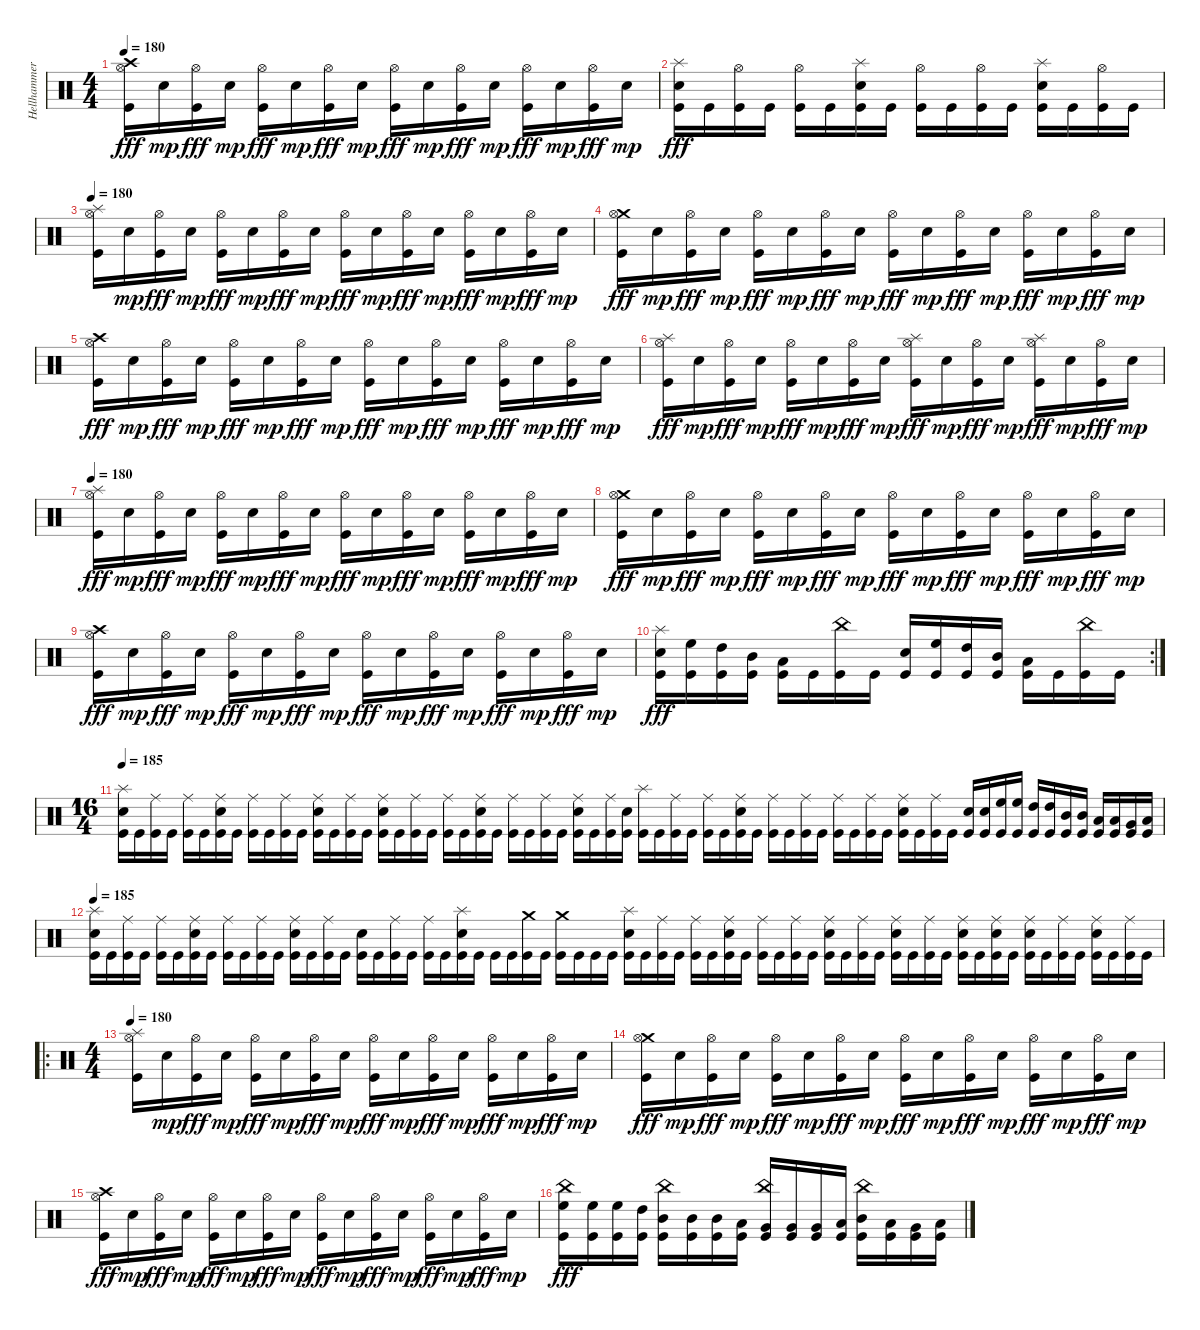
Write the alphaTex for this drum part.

\track ("Hellhammer" "Hellhammer") {instrument percussion}
\staff {score}
\articulation defaults
\ts (4 4)
\tempo 180
\clef neutral
\ks c
("Crash high (hit)" "Hi-Hat (open)" "Kick (hit)").16{dy fff} "Electric Snare (hit)".16{dy mp} ("Hi-Hat (open)" "Kick (hit)").16{dy fff} "Electric Snare (hit)".16{dy mp} ("Hi-Hat (open)" "Kick (hit)").16{dy fff} "Electric Snare (hit)".16{dy mp} ("Hi-Hat (open)" "Kick (hit)").16{dy fff} "Electric Snare (hit)".16{dy mp} ("Hi-Hat (open)" "Kick (hit)").16{dy fff} "Electric Snare (hit)".16{dy mp} ("Hi-Hat (open)" "Kick (hit)").16{dy fff} "Electric Snare (hit)".16{dy mp} ("Hi-Hat (open)" "Kick (hit)").16{dy fff} "Electric Snare (hit)".16{dy mp} ("Hi-Hat (open)" "Kick (hit)").16{dy fff} "Electric Snare (hit)".16{dy mp} |
("Splash (hit)" "Electric Snare (hit)" "Kick (hit)").16{dy fff} "Kick (hit)".16 ("Hi-Hat (open)" "Kick (hit)").16 "Kick (hit)".16 ("Hi-Hat (open)" "Kick (hit)").16 "Kick (hit)".16 ("Splash (hit)" "Electric Snare (hit)" "Kick (hit)").16 "Kick (hit)".16 ("Hi-Hat (open)" "Kick (hit)").16 "Kick (hit)".16 ("Hi-Hat (open)" "Kick (hit)").16 "Kick (hit)".16 ("Splash (hit)" "Electric Snare (hit)" "Kick (hit)").16 "Kick (hit)".16 ("Hi-Hat (open)" "Kick (hit)").16 "Kick (hit)".16 |
\tempo 180
("Splash (hit)" "Hi-Hat (open)" "Kick (hit)").16 "Electric Snare (hit)".16{dy mp} ("Hi-Hat (open)" "Kick (hit)").16{dy fff} "Electric Snare (hit)".16{dy mp} ("Hi-Hat (open)" "Kick (hit)").16{dy fff} "Electric Snare (hit)".16{dy mp} ("Hi-Hat (open)" "Kick (hit)").16{dy fff} "Electric Snare (hit)".16{dy mp} ("Hi-Hat (open)" "Kick (hit)").16{dy fff} "Electric Snare (hit)".16{dy mp} ("Hi-Hat (open)" "Kick (hit)").16{dy fff} "Electric Snare (hit)".16{dy mp} ("Hi-Hat (open)" "Kick (hit)").16{dy fff} "Electric Snare (hit)".16{dy mp} ("Hi-Hat (open)" "Kick (hit)").16{dy fff} "Electric Snare (hit)".16{dy mp} |
("Crash medium (hit)" "Hi-Hat (open)" "Kick (hit)").16{dy fff} "Electric Snare (hit)".16{dy mp} ("Hi-Hat (open)" "Kick (hit)").16{dy fff} "Electric Snare (hit)".16{dy mp} ("Hi-Hat (open)" "Kick (hit)").16{dy fff} "Electric Snare (hit)".16{dy mp} ("Hi-Hat (open)" "Kick (hit)").16{dy fff} "Electric Snare (hit)".16{dy mp} ("Hi-Hat (open)" "Kick (hit)").16{dy fff} "Electric Snare (hit)".16{dy mp} ("Hi-Hat (open)" "Kick (hit)").16{dy fff} "Electric Snare (hit)".16{dy mp} ("Hi-Hat (open)" "Kick (hit)").16{dy fff} "Electric Snare (hit)".16{dy mp} ("Hi-Hat (open)" "Kick (hit)").16{dy fff} "Electric Snare (hit)".16{dy mp} |
("Crash high (hit)" "Hi-Hat (open)" "Kick (hit)").16{dy fff} "Electric Snare (hit)".16{dy mp} ("Hi-Hat (open)" "Kick (hit)").16{dy fff} "Electric Snare (hit)".16{dy mp} ("Hi-Hat (open)" "Kick (hit)").16{dy fff} "Electric Snare (hit)".16{dy mp} ("Hi-Hat (open)" "Kick (hit)").16{dy fff} "Electric Snare (hit)".16{dy mp} ("Hi-Hat (open)" "Kick (hit)").16{dy fff} "Electric Snare (hit)".16{dy mp} ("Hi-Hat (open)" "Kick (hit)").16{dy fff} "Electric Snare (hit)".16{dy mp} ("Hi-Hat (open)" "Kick (hit)").16{dy fff} "Electric Snare (hit)".16{dy mp} ("Hi-Hat (open)" "Kick (hit)").16{dy fff} "Electric Snare (hit)".16{dy mp} |
("Splash (hit)" "Hi-Hat (open)" "Kick (hit)").16{dy fff} "Electric Snare (hit)".16{dy mp} ("Hi-Hat (open)" "Kick (hit)").16{dy fff} "Electric Snare (hit)".16{dy mp} ("Hi-Hat (open)" "Kick (hit)").16{dy fff} "Electric Snare (hit)".16{dy mp} ("Hi-Hat (open)" "Kick (hit)").16{dy fff} "Electric Snare (hit)".16{dy mp} ("Splash (hit)" "Hi-Hat (open)" "Kick (hit)").16{dy fff} "Electric Snare (hit)".16{dy mp} ("Hi-Hat (open)" "Kick (hit)").16{dy fff} "Electric Snare (hit)".16{dy mp} ("Splash (hit)" "Hi-Hat (open)" "Kick (hit)").16{dy fff} "Electric Snare (hit)".16{dy mp} ("Hi-Hat (open)" "Kick (hit)").16{dy fff} "Electric Snare (hit)".16{dy mp} |
\tempo 180
("Splash (hit)" "Hi-Hat (open)" "Kick (hit)").16{dy fff} "Electric Snare (hit)".16{dy mp} ("Hi-Hat (open)" "Kick (hit)").16{dy fff} "Electric Snare (hit)".16{dy mp} ("Hi-Hat (open)" "Kick (hit)").16{dy fff} "Electric Snare (hit)".16{dy mp} ("Hi-Hat (open)" "Kick (hit)").16{dy fff} "Electric Snare (hit)".16{dy mp} ("Hi-Hat (open)" "Kick (hit)").16{dy fff} "Electric Snare (hit)".16{dy mp} ("Hi-Hat (open)" "Kick (hit)").16{dy fff} "Electric Snare (hit)".16{dy mp} ("Hi-Hat (open)" "Kick (hit)").16{dy fff} "Electric Snare (hit)".16{dy mp} ("Hi-Hat (open)" "Kick (hit)").16{dy fff} "Electric Snare (hit)".16{dy mp} |
("Crash medium (hit)" "Hi-Hat (open)" "Kick (hit)").16{dy fff} "Electric Snare (hit)".16{dy mp} ("Hi-Hat (open)" "Kick (hit)").16{dy fff} "Electric Snare (hit)".16{dy mp} ("Hi-Hat (open)" "Kick (hit)").16{dy fff} "Electric Snare (hit)".16{dy mp} ("Hi-Hat (open)" "Kick (hit)").16{dy fff} "Electric Snare (hit)".16{dy mp} ("Hi-Hat (open)" "Kick (hit)").16{dy fff} "Electric Snare (hit)".16{dy mp} ("Hi-Hat (open)" "Kick (hit)").16{dy fff} "Electric Snare (hit)".16{dy mp} ("Hi-Hat (open)" "Kick (hit)").16{dy fff} "Electric Snare (hit)".16{dy mp} ("Hi-Hat (open)" "Kick (hit)").16{dy fff} "Electric Snare (hit)".16{dy mp} |
("Crash high (hit)" "Hi-Hat (open)" "Kick (hit)").16{dy fff} "Electric Snare (hit)".16{dy mp} ("Hi-Hat (open)" "Kick (hit)").16{dy fff} "Electric Snare (hit)".16{dy mp} ("Hi-Hat (open)" "Kick (hit)").16{dy fff} "Electric Snare (hit)".16{dy mp} ("Hi-Hat (open)" "Kick (hit)").16{dy fff} "Electric Snare (hit)".16{dy mp} ("Hi-Hat (open)" "Kick (hit)").16{dy fff} "Electric Snare (hit)".16{dy mp} ("Hi-Hat (open)" "Kick (hit)").16{dy fff} "Electric Snare (hit)".16{dy mp} ("Hi-Hat (open)" "Kick (hit)").16{dy fff} "Electric Snare (hit)".16{dy mp} ("Hi-Hat (open)" "Kick (hit)").16{dy fff} "Electric Snare (hit)".16{dy mp} |
\rc 2
("Splash (hit)" "Electric Snare (hit)" "Kick (hit)").16{dy fff} ("High Floor Tom (hit)" "Kick (hit)").16 ("High Tom (hit)" "Kick (hit)").16 ("Mid Tom (hit)" "Kick (hit)").16 ("Low Tom (hit)" "Kick (hit)").16 "Kick (hit)".16 ("China (hit)" "Kick (hit)").16 "Kick (hit)".16 ("Electric Snare (hit)" "Kick (hit)").16 ("High Floor Tom (hit)" "Kick (hit)").16 ("High Tom (hit)" "Kick (hit)").16 ("Mid Tom (hit)" "Kick (hit)").16 ("Low Tom (hit)" "Kick (hit)").16 "Kick (hit)".16 ("China (hit)" "Kick (hit)").16 "Kick (hit)".16 |
\ts (16 4)
\tempo 180
\tempo 185
("Splash (hit)" "Electric Snare (hit)" "Kick (hit)").16 "Kick (hit)".16 ("Ride (middle)" "Kick (hit)").16 "Kick (hit)".16 ("Ride (middle)" "Kick (hit)").16 "Kick (hit)".16 ("Ride (middle)" "Electric Snare (hit)" "Kick (hit)").16 "Kick (hit)".16 ("Ride (middle)" "Kick (hit)").16 "Kick (hit)".16 ("Ride (middle)" "Kick (hit)").16 "Kick (hit)".16 ("Ride (middle)" "Electric Snare (hit)" "Kick (hit)").16 "Kick (hit)".16 ("Ride (middle)" "Kick (hit)").16 "Kick (hit)".16 ("Ride (middle)" "Electric Snare (hit)" "Kick (hit)").16 "Kick (hit)".16 ("Ride (middle)" "Kick (hit)").16 "Kick (hit)".16 ("Ride (middle)" "Kick (hit)").16 "Kick (hit)".16 ("Ride (middle)" "Electric Snare (hit)" "Kick (hit)").16 "Kick (hit)".16 ("Ride (middle)" "Kick (hit)").16 "Kick (hit)".16 ("Ride (middle)" "Kick (hit)").16 "Kick (hit)".16 ("Ride (middle)" "Electric Snare (hit)" "Kick (hit)").16 "Kick (hit)".16 ("Ride (middle)" "Kick (hit)").16 ("Electric Snare (hit)" "Kick (hit)").16 ("Splash (hit)" "Kick (hit)").16 "Kick (hit)".16 ("Ride (middle)" "Kick (hit)").16 "Kick (hit)".16 ("Ride (middle)" "Kick (hit)").16 "Kick (hit)".16 ("Ride (middle)" "Electric Snare (hit)" "Kick (hit)").16 "Kick (hit)".16 ("Ride (middle)" "Kick (hit)").16 "Kick (hit)".16 ("Ride (middle)" "Kick (hit)").16 "Kick (hit)".16 ("Ride (middle)" "Kick (hit)").16 "Kick (hit)".16 ("Ride (middle)" "Kick (hit)").16 "Kick (hit)".16 ("Ride (middle)" "Electric Snare (hit)" "Kick (hit)").16 "Kick (hit)".16 ("Ride (middle)" "Kick (hit)").16 "Kick (hit)".16 ("Electric Snare (hit)" "Kick (hit)").16 ("Electric Snare (hit)" "Kick (hit)").16 ("High Floor Tom (hit)" "Kick (hit)").16 ("High Floor Tom (hit)" "Kick (hit)").16 ("High Tom (hit)" "Kick (hit)").16 ("High Tom (hit)" "Kick (hit)").16 ("Mid Tom (hit)" "Kick (hit)").16 ("Mid Tom (hit)" "Kick (hit)").16 ("Low Tom (hit)" "Kick (hit)").16 ("Low Tom (hit)" "Kick (hit)").16 ("Very Low Tom (hit)" "Kick (hit)").16 ("Low Floor Tom (hit)" "Kick (hit)").16 |
\tempo 180
\tempo 185
("Splash (hit)" "Electric Snare (hit)" "Kick (hit)").16 "Kick (hit)".16 ("Ride (middle)" "Kick (hit)").16 "Kick (hit)".16 ("Ride (middle)" "Kick (hit)").16 "Kick (hit)".16 ("Ride (middle)" "Electric Snare (hit)" "Kick (hit)").16 "Kick (hit)".16 ("Ride (middle)" "Kick (hit)").16 "Kick (hit)".16 ("Ride (middle)" "Kick (hit)").16 "Kick (hit)".16 ("Ride (middle)" "Electric Snare (hit)" "Kick (hit)").16 "Kick (hit)".16 ("Ride (middle)" "Kick (hit)").16 "Kick (hit)".16 ("Electric Snare (hit)" "Kick (hit)").16 "Kick (hit)".16 ("Ride (middle)" "Kick (hit)").16 "Kick (hit)".16 ("Ride (middle)" "Kick (hit)").16 "Kick (hit)".16 ("Splash (hit)" "Electric Snare (hit)" "Kick (hit)").16 "Kick (hit)".16 "Kick (hit)".16 "Kick (hit)".16 ("Crash medium (hit)" "Kick (hit)").16 "Kick (hit)".16 ("Crash medium (hit)" "Kick (hit)").16 "Kick (hit)".16 "Kick (hit)".16 "Kick (hit)".16 ("Splash (hit)" "Electric Snare (hit)" "Kick (hit)").16 "Kick (hit)".16 ("Ride (middle)" "Kick (hit)").16 "Kick (hit)".16 ("Ride (middle)" "Kick (hit)").16 "Kick (hit)".16 ("Ride (middle)" "Electric Snare (hit)" "Kick (hit)").16 "Kick (hit)".16 ("Ride (middle)" "Kick (hit)").16 "Kick (hit)".16 ("Ride (middle)" "Kick (hit)").16 "Kick (hit)".16 ("Ride (middle)" "Electric Snare (hit)" "Kick (hit)").16 "Kick (hit)".16 ("Ride (middle)" "Kick (hit)").16 "Kick (hit)".16 ("Ride (middle)" "Electric Snare (hit)" "Kick (hit)").16 "Kick (hit)".16 ("Ride (middle)" "Kick (hit)").16 "Kick (hit)".16 ("Ride (middle)" "Electric Snare (hit)" "Kick (hit)").16 "Kick (hit)".16 ("Ride (middle)" "Electric Snare (hit)" "Kick (hit)").16 "Kick (hit)".16 ("Ride (middle)" "Electric Snare (hit)" "Kick (hit)").16 "Kick (hit)".16 ("Ride (middle)" "Kick (hit)").16 "Kick (hit)".16 ("Ride (middle)" "Electric Snare (hit)" "Kick (hit)").16 "Kick (hit)".16 ("Ride (middle)" "Kick (hit)").16 "Kick (hit)".16 |
\ro
\ts (4 4)
\tempo 180
("Splash (hit)" "Hi-Hat (open)" "Kick (hit)").16 "Electric Snare (hit)".16{dy mp} ("Hi-Hat (open)" "Kick (hit)").16{dy fff} "Electric Snare (hit)".16{dy mp} ("Hi-Hat (open)" "Kick (hit)").16{dy fff} "Electric Snare (hit)".16{dy mp} ("Hi-Hat (open)" "Kick (hit)").16{dy fff} "Electric Snare (hit)".16{dy mp} ("Hi-Hat (open)" "Kick (hit)").16{dy fff} "Electric Snare (hit)".16{dy mp} ("Hi-Hat (open)" "Kick (hit)").16{dy fff} "Electric Snare (hit)".16{dy mp} ("Hi-Hat (open)" "Kick (hit)").16{dy fff} "Electric Snare (hit)".16{dy mp} ("Hi-Hat (open)" "Kick (hit)").16{dy fff} "Electric Snare (hit)".16{dy mp} |
("Crash medium (hit)" "Hi-Hat (open)" "Kick (hit)").16{dy fff} "Electric Snare (hit)".16{dy mp} ("Hi-Hat (open)" "Kick (hit)").16{dy fff} "Electric Snare (hit)".16{dy mp} ("Hi-Hat (open)" "Kick (hit)").16{dy fff} "Electric Snare (hit)".16{dy mp} ("Hi-Hat (open)" "Kick (hit)").16{dy fff} "Electric Snare (hit)".16{dy mp} ("Hi-Hat (open)" "Kick (hit)").16{dy fff} "Electric Snare (hit)".16{dy mp} ("Hi-Hat (open)" "Kick (hit)").16{dy fff} "Electric Snare (hit)".16{dy mp} ("Hi-Hat (open)" "Kick (hit)").16{dy fff} "Electric Snare (hit)".16{dy mp} ("Hi-Hat (open)" "Kick (hit)").16{dy fff} "Electric Snare (hit)".16{dy mp} |
("Crash high (hit)" "Hi-Hat (open)" "Kick (hit)").16{dy fff} "Electric Snare (hit)".16{dy mp} ("Hi-Hat (open)" "Kick (hit)").16{dy fff} "Electric Snare (hit)".16{dy mp} ("Hi-Hat (open)" "Kick (hit)").16{dy fff} "Electric Snare (hit)".16{dy mp} ("Hi-Hat (open)" "Kick (hit)").16{dy fff} "Electric Snare (hit)".16{dy mp} ("Hi-Hat (open)" "Kick (hit)").16{dy fff} "Electric Snare (hit)".16{dy mp} ("Hi-Hat (open)" "Kick (hit)").16{dy fff} "Electric Snare (hit)".16{dy mp} ("Hi-Hat (open)" "Kick (hit)").16{dy fff} "Electric Snare (hit)".16{dy mp} ("Hi-Hat (open)" "Kick (hit)").16{dy fff} "Electric Snare (hit)".16{dy mp} |
("China (hit)" "High Floor Tom (hit)" "Kick (hit)").16{dy fff} ("High Floor Tom (hit)" "Kick (hit)").16 ("High Floor Tom (hit)" "Kick (hit)").16 ("High Tom (hit)" "Kick (hit)").16 ("China (hit)" "Mid Tom (hit)" "Kick (hit)").16 ("Mid Tom (hit)" "Kick (hit)").16 ("Mid Tom (hit)" "Kick (hit)").16 ("Low Tom (hit)" "Kick (hit)").16 ("China (hit)" "Very Low Tom (hit)" "Kick (hit)").16 ("Very Low Tom (hit)" "Kick (hit)").16 ("Very Low Tom (hit)" "Kick (hit)").16 ("Low Floor Tom (hit)" "Kick (hit)").16 ("China (hit)" "Mid Tom (hit)" "Kick (hit)").16 ("Low Tom (hit)" "Kick (hit)").16 ("Very Low Tom (hit)" "Kick (hit)").16 ("Low Floor Tom (hit)" "Kick (hit)").16
